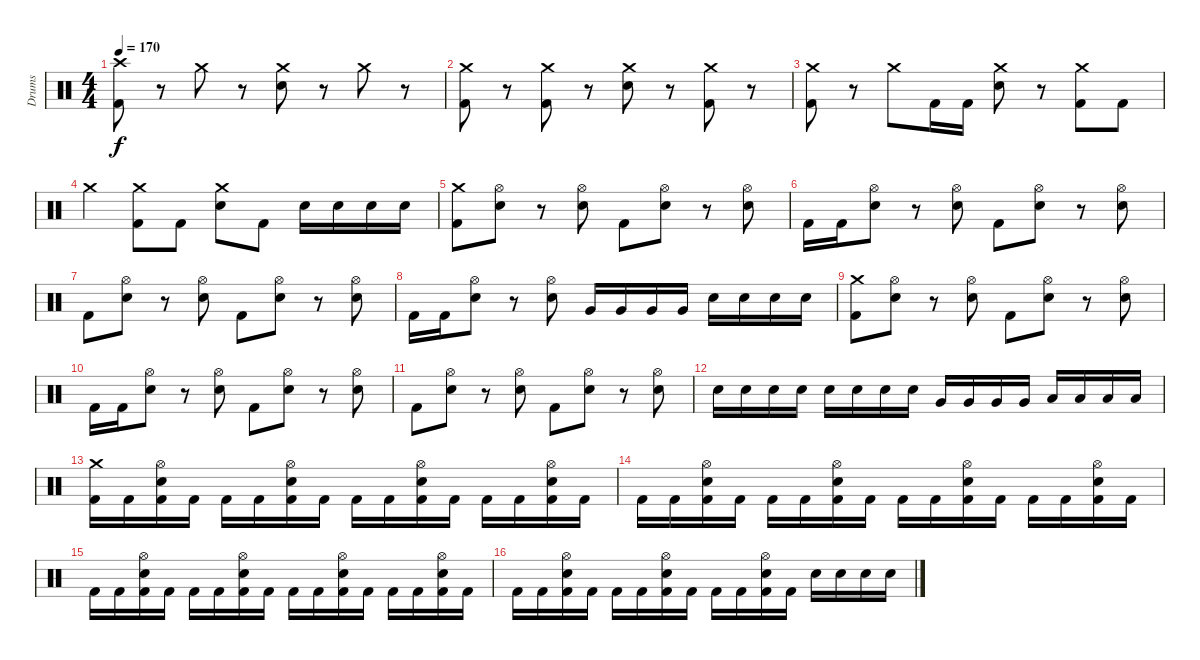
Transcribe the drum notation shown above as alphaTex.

\track ("Drums" "Drums") {instrument percussion}
\staff
\articulation defaults
\ts (4 4)
\tempo 170
\clef neutral
\ks c
("Crash high (hit)" "Kick (hit) 2").8{dy f} r.8 "Crash medium (hit)".8 r.8 ("Crash medium (hit)" "Electric Snare (hit)").8 r.8 "Crash medium (hit)".8 r.8 |
("Crash medium (hit)" "Kick (hit) 2").8 r.8 ("Crash medium (hit)" "Kick (hit) 2").8 r.8 ("Crash medium (hit)" "Electric Snare (hit)").8 r.8 ("Crash medium (hit)" "Kick (hit) 2").8 r.8 |
("Crash medium (hit)" "Kick (hit) 2").8 r.8 "Crash medium (hit)".8 "Kick (hit) 2".16 "Kick (hit) 2".16 ("Crash medium (hit)" "Electric Snare (hit)").8 r.8 ("Crash medium (hit)" "Kick (hit) 2").8 "Kick (hit) 2".8 |
"Crash medium (hit)".4 ("Crash medium (hit)" "Kick (hit) 2").8 "Kick (hit) 2".8 ("Crash medium (hit)" "Electric Snare (hit)").8 "Kick (hit) 2".8 "Electric Snare (hit)".16 "Electric Snare (hit)".16 "Electric Snare (hit)".16 "Electric Snare (hit)".16 |
("Crash medium (hit)" "Kick (hit) 2").8 ("Hi-Hat (open)" "Electric Snare (hit)").8 r.8 ("Hi-Hat (open)" "Electric Snare (hit)").8 "Kick (hit) 2".8 ("Hi-Hat (open)" "Electric Snare (hit)").8 r.8 ("Hi-Hat (open)" "Electric Snare (hit)").8 |
"Kick (hit) 2".16 "Kick (hit) 2".16 ("Hi-Hat (open)" "Electric Snare (hit)").8 r.8 ("Hi-Hat (open)" "Electric Snare (hit)").8 "Kick (hit) 2".8 ("Hi-Hat (open)" "Electric Snare (hit)").8 r.8 ("Hi-Hat (open)" "Electric Snare (hit)").8 |
"Kick (hit) 2".8 ("Hi-Hat (open)" "Electric Snare (hit)").8 r.8 ("Hi-Hat (open)" "Electric Snare (hit)").8 "Kick (hit) 2".8 ("Hi-Hat (open)" "Electric Snare (hit)").8 r.8 ("Hi-Hat (open)" "Electric Snare (hit)").8 |
"Kick (hit) 2".16 "Kick (hit) 2".16 ("Hi-Hat (open)" "Electric Snare (hit)").8 r.8 ("Hi-Hat (open)" "Electric Snare (hit)").8 "Very Low Tom (hit)".16 "Very Low Tom (hit)".16 "Very Low Tom (hit)".16 "Very Low Tom (hit)".16 "Electric Snare (hit)".16 "Electric Snare (hit)".16 "Electric Snare (hit)".16 "Electric Snare (hit)".16 |
("Crash medium (hit)" "Kick (hit) 2").8 ("Hi-Hat (open)" "Electric Snare (hit)").8 r.8 ("Hi-Hat (open)" "Electric Snare (hit)").8 "Kick (hit) 2".8 ("Hi-Hat (open)" "Electric Snare (hit)").8 r.8 ("Hi-Hat (open)" "Electric Snare (hit)").8 |
"Kick (hit) 2".16 "Kick (hit) 2".16 ("Hi-Hat (open)" "Electric Snare (hit)").8 r.8 ("Hi-Hat (open)" "Electric Snare (hit)").8 "Kick (hit) 2".8 ("Hi-Hat (open)" "Electric Snare (hit)").8 r.8 ("Hi-Hat (open)" "Electric Snare (hit)").8 |
"Kick (hit) 2".8 ("Hi-Hat (open)" "Electric Snare (hit)").8 r.8 ("Hi-Hat (open)" "Electric Snare (hit)").8 "Kick (hit) 2".8 ("Hi-Hat (open)" "Electric Snare (hit)").8 r.8 ("Hi-Hat (open)" "Electric Snare (hit)").8 |
"Electric Snare (hit)".16 "Electric Snare (hit)".16 "Electric Snare (hit)".16 "Electric Snare (hit)".16 "Electric Snare (hit)".16 "Electric Snare (hit)".16 "Electric Snare (hit)".16 "Electric Snare (hit)".16 "Very Low Tom (hit)".16 "Very Low Tom (hit)".16 "Very Low Tom (hit)".16 "Very Low Tom (hit)".16 "Low Floor Tom (hit)".16 "Low Floor Tom (hit)".16 "Low Floor Tom (hit)".16 "Low Floor Tom (hit)".16 |
("Crash medium (hit)" "Kick (hit) 2").16 "Kick (hit) 2".16 ("Hi-Hat (open)" "Electric Snare (hit)" "Kick (hit) 2").16 "Kick (hit) 2".16 "Kick (hit) 2".16 "Kick (hit) 2".16 ("Hi-Hat (open)" "Electric Snare (hit)" "Kick (hit) 2").16 "Kick (hit) 2".16 "Kick (hit) 2".16 "Kick (hit) 2".16 ("Hi-Hat (open)" "Electric Snare (hit)" "Kick (hit) 2").16 "Kick (hit) 2".16 "Kick (hit) 2".16 "Kick (hit) 2".16 ("Hi-Hat (open)" "Electric Snare (hit)" "Kick (hit) 2").16 "Kick (hit) 2".16 |
"Kick (hit) 2".16 "Kick (hit) 2".16 ("Hi-Hat (open)" "Electric Snare (hit)" "Kick (hit) 2").16 "Kick (hit) 2".16 "Kick (hit) 2".16 "Kick (hit) 2".16 ("Hi-Hat (open)" "Electric Snare (hit)" "Kick (hit) 2").16 "Kick (hit) 2".16 "Kick (hit) 2".16 "Kick (hit) 2".16 ("Hi-Hat (open)" "Electric Snare (hit)" "Kick (hit) 2").16 "Kick (hit) 2".16 "Kick (hit) 2".16 "Kick (hit) 2".16 ("Hi-Hat (open)" "Electric Snare (hit)" "Kick (hit) 2").16 "Kick (hit) 2".16 |
"Kick (hit) 2".16 "Kick (hit) 2".16 ("Hi-Hat (open)" "Electric Snare (hit)" "Kick (hit) 2").16 "Kick (hit) 2".16 "Kick (hit) 2".16 "Kick (hit) 2".16 ("Hi-Hat (open)" "Electric Snare (hit)" "Kick (hit) 2").16 "Kick (hit) 2".16 "Kick (hit) 2".16 "Kick (hit) 2".16 ("Hi-Hat (open)" "Electric Snare (hit)" "Kick (hit) 2").16 "Kick (hit) 2".16 "Kick (hit) 2".16 "Kick (hit) 2".16 ("Hi-Hat (open)" "Electric Snare (hit)" "Kick (hit) 2").16 "Kick (hit) 2".16 |
"Kick (hit) 2".16 "Kick (hit) 2".16 ("Hi-Hat (open)" "Electric Snare (hit)" "Kick (hit) 2").16 "Kick (hit) 2".16 "Kick (hit) 2".16 "Kick (hit) 2".16 ("Hi-Hat (open)" "Electric Snare (hit)" "Kick (hit) 2").16 "Kick (hit) 2".16 "Kick (hit) 2".16 "Kick (hit) 2".16 ("Hi-Hat (open)" "Electric Snare (hit)" "Kick (hit) 2").16 "Kick (hit) 2".16 "Electric Snare (hit)".16 "Electric Snare (hit)".16 "Electric Snare (hit)".16 "Electric Snare (hit)".16
